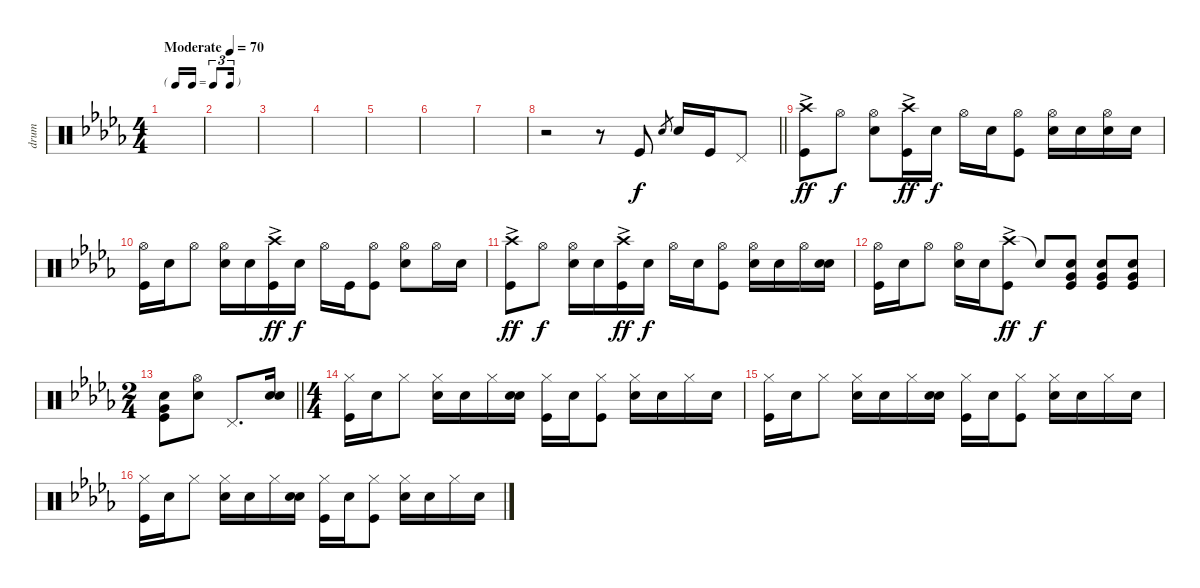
\track ("drum" "drum") {instrument percussion}
\staff {score}
\articulation defaults
\ts (4 4)
\tf triplet16th
\section ("" "")
\tempo (70 "Moderate")
\clef neutral
\ks db
|
|
|
|
|
|
|
\barLineRight lightlight
r.2 r.8 "Kick (hit)".8 "Snare (hit) 2".8{gr} "Snare (hit) 2".16 "Kick (hit)".16 "Pedal Hi-Hat (hit)".8 |
\section ("" "")
("Crash high (hit)"{ac} "Kick (hit)").8{dy ff} "Hi-Hat (open)".8{dy f} ("Hi-Hat (open)" "Snare (hit) 2").8 ("Crash high (hit)"{ac} "Kick (hit)").16{dy ff} "Snare (hit) 2".16{dy f} "Hi-Hat (open)".16 "Snare (hit) 2".16 ("Hi-Hat (open)" "Kick (hit)").8 ("Hi-Hat (open)" "Snare (hit) 2").16 "Snare (hit) 2".16 ("Hi-Hat (open)" "Snare (hit) 2").16 "Snare (hit) 2".16 |
("Hi-Hat (open)" "Kick (hit)").16 "Snare (hit) 2".16 "Hi-Hat (open)".8 ("Snare (hit) 2" "Hi-Hat (open)").16 "Snare (hit)".16 ("Crash high (hit)"{ac} "Kick (hit)").16{dy ff} "Snare (hit) 2".16{dy f} "Hi-Hat (open)".16 "Kick (hit)".16 ("Hi-Hat (open)" "Kick (hit)").8 ("Hi-Hat (open)" "Snare (hit) 2").8 "Hi-Hat (open)".16 "Snare (hit) 2".16 |
("Crash high (hit)"{ac} "Kick (hit)").8{dy ff} "Hi-Hat (open)".8{dy f} ("Hi-Hat (open)" "Snare (hit) 2").16 "Snare (hit) 2".16 ("Crash high (hit)"{ac} "Kick (hit)").16{dy ff} "Snare (hit) 2".16{dy f} "Hi-Hat (open)".16 "Snare (hit) 2".16 ("Hi-Hat (open)" "Kick (hit)").8 ("Hi-Hat (open)" "Snare (hit) 2").16 "Snare (hit) 2".16 "Hi-Hat (open)".16 ("Snare (hit) 2" "Snare (hit) 2").16 |
("Hi-Hat (open)" "Kick (hit)").16 "Snare (hit) 2".16 "Hi-Hat (open)".8 ("Hi-Hat (open)" "Snare (hit) 2").16 "Snare (hit) 2".16 ("Crash high (hit)"{ac} "Kick (hit)").8{dy ff} "Snare (hit)"{t}.8{dy f} ("Snare (hit) 2" "Kick (hit)" "Very Low Tom (hit)").8{volume 8} ("Snare (hit) 2" "Kick (hit)" "Very Low Tom (hit)").8{volume 15} ("Snare (hit) 2" "Kick (hit)" "Very Low Tom (hit)").8 |
\ts (2 4)
\barLineRight lightlight
("Snare (hit) 2" "Very Low Tom (hit)" "Kick (hit)").8 ("Hi-Hat (open)" "Snare (hit) 2").8 "Pedal Hi-Hat (hit)".8{d} ("Snare (hit) 2" "Snare (hit) 2").16 |
\ts (4 4)
\section ("" "")
("Hi-Hat (closed)" "Kick (hit)").16 "Snare (hit) 2".16 "Hi-Hat (closed)".8 ("Hi-Hat (closed)" "Snare (hit) 2").16 "Snare (hit) 2".16 "Hi-Hat (closed)".16 ("Snare (hit) 2" "Snare (hit) 2").16 ("Hi-Hat (closed)" "Kick (hit)").16 "Snare (hit) 2".16 ("Hi-Hat (closed)" "Kick (hit)").8 ("Hi-Hat (closed)" "Snare (hit) 2").16 "Snare (hit) 2".16 "Hi-Hat (closed)".16 "Snare (hit) 2".16 |
("Hi-Hat (closed)" "Kick (hit)").16 "Snare (hit) 2".16 "Hi-Hat (closed)".8 ("Hi-Hat (closed)" "Snare (hit) 2").16 "Snare (hit) 2".16 "Hi-Hat (closed)".16 ("Snare (hit) 2" "Snare (hit) 2").16 ("Hi-Hat (closed)" "Kick (hit)").16 "Snare (hit) 2".16 ("Hi-Hat (closed)" "Kick (hit)").8 ("Hi-Hat (closed)" "Snare (hit) 2").16 "Snare (hit) 2".16 "Hi-Hat (closed)".16 "Snare (hit) 2".16 |
("Hi-Hat (closed)" "Kick (hit)").16 "Snare (hit) 2".16 "Hi-Hat (closed)".8 ("Hi-Hat (closed)" "Snare (hit) 2").16 "Snare (hit) 2".16 "Hi-Hat (closed)".16 ("Snare (hit) 2" "Snare (hit) 2").16 ("Hi-Hat (closed)" "Kick (hit)").16 "Snare (hit) 2".16 ("Hi-Hat (closed)" "Kick (hit)").8 ("Hi-Hat (closed)" "Snare (hit) 2").16 "Snare (hit) 2".16 "Hi-Hat (closed)".16 "Snare (hit) 2".16
